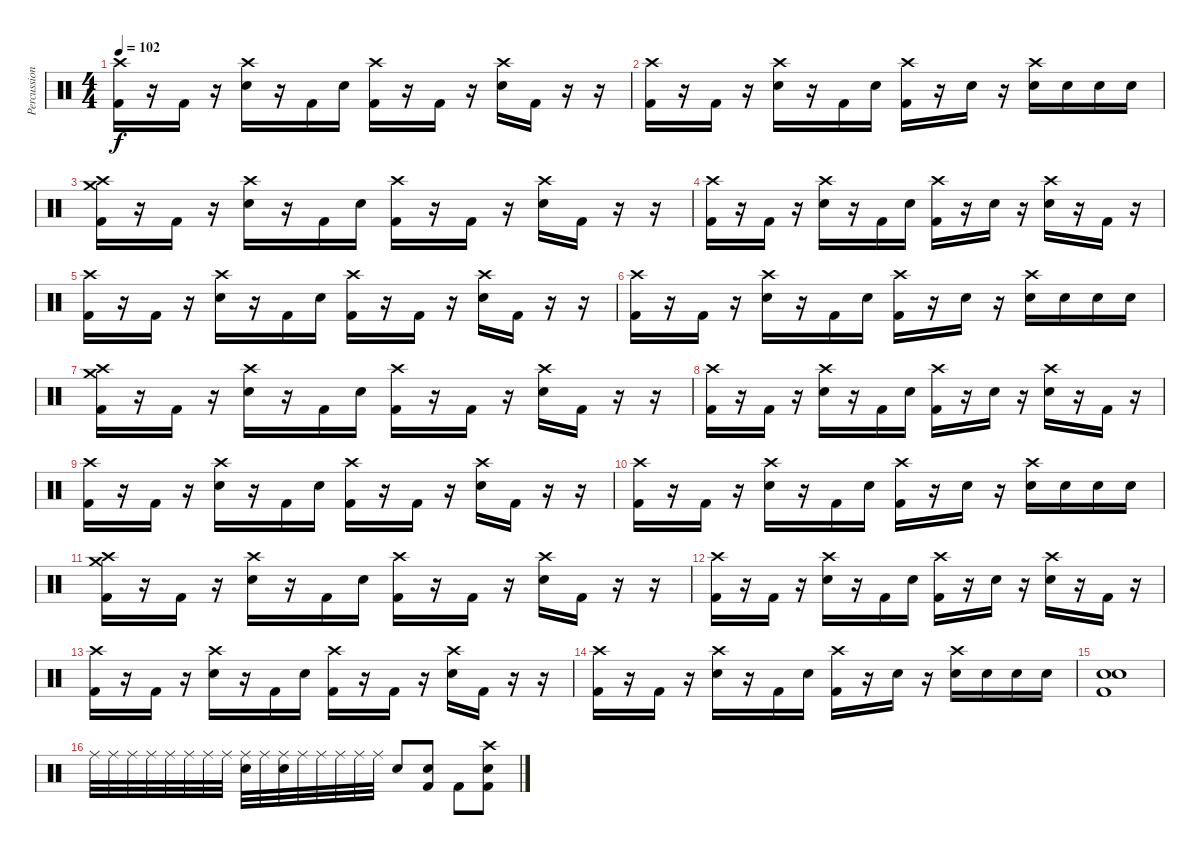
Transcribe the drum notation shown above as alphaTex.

\track ("Percussion" "Percussion") {instrument percussion}
\staff {score}
\articulation defaults
\ts (4 4)
\tempo 102
\clef neutral
\ks c
("Crash high (hit)" "Kick (hit) 2").16{dy f} r.16 "Kick (hit) 2".16 r.16 ("Crash high (hit)" "Electric Snare (hit)").16 r.16 "Kick (hit) 2".16 "Electric Snare (hit)".16 ("Crash high (hit)" "Kick (hit) 2").16 r.16 "Kick (hit) 2".16 r.16 ("Crash high (hit)" "Electric Snare (hit)").16 "Kick (hit) 2".16 r.16 r.16 |
("Crash high (hit)" "Kick (hit) 2").16 r.16 "Kick (hit) 2".16 r.16 ("Crash high (hit)" "Electric Snare (hit)").16 r.16 "Kick (hit) 2".16 "Electric Snare (hit)".16 ("Crash high (hit)" "Kick (hit) 2").16 r.16 "Electric Snare (hit)".16 r.16 ("Crash high (hit)" "Electric Snare (hit)").16 "Electric Snare (hit)".16 "Electric Snare (hit)".16 "Electric Snare (hit)".16 |
("Crash medium (hit)" "Crash high (hit)" "Kick (hit) 2").16 r.16 "Kick (hit) 2".16 r.16 ("Crash high (hit)" "Electric Snare (hit)").16 r.16 "Kick (hit) 2".16 "Electric Snare (hit)".16 ("Crash high (hit)" "Kick (hit) 2").16 r.16 "Kick (hit) 2".16 r.16 ("Crash high (hit)" "Electric Snare (hit)").16 "Kick (hit) 2".16 r.16 r.16 |
("Crash high (hit)" "Kick (hit) 2").16 r.16 "Kick (hit) 2".16 r.16 ("Crash high (hit)" "Electric Snare (hit)").16 r.16 "Kick (hit) 2".16 "Electric Snare (hit)".16 ("Crash high (hit)" "Kick (hit) 2").16 r.16 "Electric Snare (hit)".16 r.16 ("Crash high (hit)" "Electric Snare (hit)").16 r.16 "Kick (hit) 2".16 r.16 |
("Crash high (hit)" "Kick (hit) 2").16 r.16 "Kick (hit) 2".16 r.16 ("Crash high (hit)" "Electric Snare (hit)").16 r.16 "Kick (hit) 2".16 "Electric Snare (hit)".16 ("Crash high (hit)" "Kick (hit) 2").16 r.16 "Kick (hit) 2".16 r.16 ("Crash high (hit)" "Electric Snare (hit)").16 "Kick (hit) 2".16 r.16 r.16 |
("Crash high (hit)" "Kick (hit) 2").16 r.16 "Kick (hit) 2".16 r.16 ("Crash high (hit)" "Electric Snare (hit)").16 r.16 "Kick (hit) 2".16 "Electric Snare (hit)".16 ("Crash high (hit)" "Kick (hit) 2").16 r.16 "Electric Snare (hit)".16 r.16 ("Crash high (hit)" "Electric Snare (hit)").16 "Electric Snare (hit)".16 "Electric Snare (hit)".16 "Electric Snare (hit)".16 |
("Crash medium (hit)" "Crash high (hit)" "Kick (hit) 2").16{volume 16} r.16 "Kick (hit) 2".16 r.16 ("Crash high (hit)" "Electric Snare (hit)").16 r.16 "Kick (hit) 2".16 "Electric Snare (hit)".16 ("Crash high (hit)" "Kick (hit) 2").16 r.16 "Kick (hit) 2".16 r.16 ("Crash high (hit)" "Electric Snare (hit)").16 "Kick (hit) 2".16 r.16 r.16 |
("Crash high (hit)" "Kick (hit) 2").16 r.16 "Kick (hit) 2".16 r.16 ("Crash high (hit)" "Electric Snare (hit)").16 r.16 "Kick (hit) 2".16 "Electric Snare (hit)".16 ("Crash high (hit)" "Kick (hit) 2").16 r.16 "Electric Snare (hit)".16 r.16 ("Crash high (hit)" "Electric Snare (hit)").16 r.16 "Kick (hit) 2".16 r.16 |
("Crash high (hit)" "Kick (hit) 2").16 r.16 "Kick (hit) 2".16 r.16 ("Crash high (hit)" "Electric Snare (hit)").16 r.16 "Kick (hit) 2".16 "Electric Snare (hit)".16 ("Crash high (hit)" "Kick (hit) 2").16 r.16 "Kick (hit) 2".16 r.16 ("Crash high (hit)" "Electric Snare (hit)").16 "Kick (hit) 2".16 r.16 r.16 |
("Crash high (hit)" "Kick (hit) 2").16 r.16 "Kick (hit) 2".16 r.16 ("Crash high (hit)" "Electric Snare (hit)").16 r.16 "Kick (hit) 2".16 "Electric Snare (hit)".16 ("Crash high (hit)" "Kick (hit) 2").16 r.16 "Electric Snare (hit)".16 r.16 ("Crash high (hit)" "Electric Snare (hit)").16 "Electric Snare (hit)".16 "Electric Snare (hit)".16 "Electric Snare (hit)".16 |
("Crash medium (hit)" "Crash high (hit)" "Kick (hit) 2").16 r.16 "Kick (hit) 2".16 r.16 ("Crash high (hit)" "Electric Snare (hit)").16 r.16 "Kick (hit) 2".16 "Electric Snare (hit)".16 ("Crash high (hit)" "Kick (hit) 2").16 r.16 "Kick (hit) 2".16 r.16 ("Crash high (hit)" "Electric Snare (hit)").16 "Kick (hit) 2".16 r.16 r.16 |
("Crash high (hit)" "Kick (hit) 2").16 r.16 "Kick (hit) 2".16 r.16 ("Crash high (hit)" "Electric Snare (hit)").16 r.16 "Kick (hit) 2".16 "Electric Snare (hit)".16 ("Crash high (hit)" "Kick (hit) 2").16 r.16 "Electric Snare (hit)".16 r.16 ("Crash high (hit)" "Electric Snare (hit)").16 r.16 "Kick (hit) 2".16 r.16 |
("Crash high (hit)" "Kick (hit) 2").16 r.16 "Kick (hit) 2".16 r.16 ("Crash high (hit)" "Electric Snare (hit)").16 r.16 "Kick (hit) 2".16 "Electric Snare (hit)".16 ("Crash high (hit)" "Kick (hit) 2").16 r.16 "Kick (hit) 2".16 r.16 ("Crash high (hit)" "Electric Snare (hit)").16 "Kick (hit) 2".16 r.16 r.16 |
("Crash high (hit)" "Kick (hit) 2").16 r.16 "Kick (hit) 2".16 r.16 ("Crash high (hit)" "Electric Snare (hit)").16 r.16 "Kick (hit) 2".16 "Electric Snare (hit)".16 ("Crash high (hit)" "Kick (hit) 2").16 r.16 "Electric Snare (hit)".16 r.16 ("Crash high (hit)" "Electric Snare (hit)").16 "Electric Snare (hit)".16 "Electric Snare (hit)".16 "Electric Snare (hit)".16 |
("Electric Snare (hit)" "Electric Snare (hit)" "Kick (hit) 2").1 |
"Ride (middle)".32 "Ride (middle)".32 "Ride (middle)".32 "Ride (middle)".32 "Ride (middle)".32 "Ride (middle)".32 "Ride (middle)".32 "Ride (middle)".32 ("Ride (middle)" "Electric Snare (hit)").32 "Ride (middle)".32 ("Ride (middle)" "Electric Snare (hit)").32 "Ride (middle)".32 "Ride (middle)".32 "Ride (middle)".32 "Ride (middle)".32 "Ride (middle)".32 "Electric Snare (hit)".8 ("Electric Snare (hit)" "Kick (hit) 2").8 "Kick (hit) 2".8 ("Crash high (hit)" "Electric Snare (hit)" "Kick (hit) 2").8
